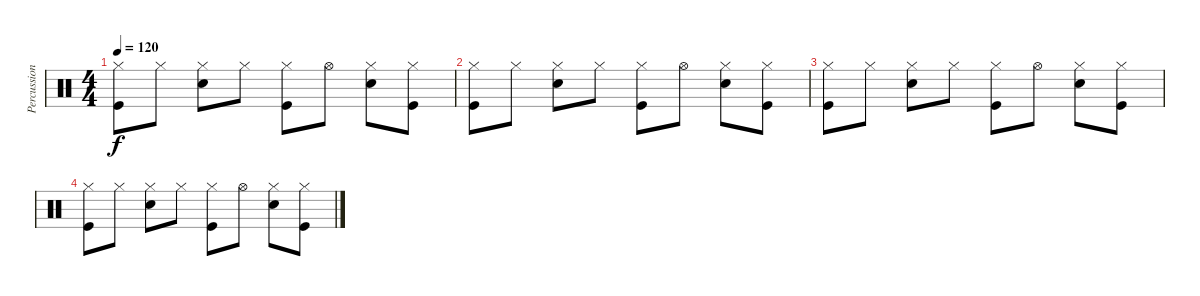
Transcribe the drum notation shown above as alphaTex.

\track ("Percussions" "Percussion") {instrument percussion}
\staff {score}
\articulation defaults
\ts (4 4)
\tempo 120
\clef neutral
\ks c
("Kick (hit)" "Hi-Hat (closed)").8{dy f} "Hi-Hat (closed)".8 ("Snare (hit) 2" "Hi-Hat (closed)").8 "Hi-Hat (closed)".8 ("Kick (hit)" "Hi-Hat (closed)").8 "Hi-Hat (open)".8 ("Snare (hit) 2" "Hi-Hat (closed)").8 ("Kick (hit)" "Hi-Hat (closed)").8 |
("Kick (hit)" "Hi-Hat (closed)").8 "Hi-Hat (closed)".8 ("Snare (hit) 2" "Hi-Hat (closed)").8 "Hi-Hat (closed)".8 ("Kick (hit)" "Hi-Hat (closed)").8 "Hi-Hat (open)".8 ("Snare (hit) 2" "Hi-Hat (closed)").8 ("Kick (hit)" "Hi-Hat (closed)").8 |
("Kick (hit)" "Hi-Hat (closed)").8 "Hi-Hat (closed)".8 ("Snare (hit) 2" "Hi-Hat (closed)").8 "Hi-Hat (closed)".8 ("Kick (hit)" "Hi-Hat (closed)").8 "Hi-Hat (open)".8 ("Snare (hit) 2" "Hi-Hat (closed)").8 ("Kick (hit)" "Hi-Hat (closed)").8 |
("Kick (hit)" "Hi-Hat (closed)").8 "Hi-Hat (closed)".8 ("Snare (hit) 2" "Hi-Hat (closed)").8 "Hi-Hat (closed)".8 ("Kick (hit)" "Hi-Hat (closed)").8 "Hi-Hat (open)".8 ("Snare (hit) 2" "Hi-Hat (closed)").8 ("Kick (hit)" "Hi-Hat (closed)").8
